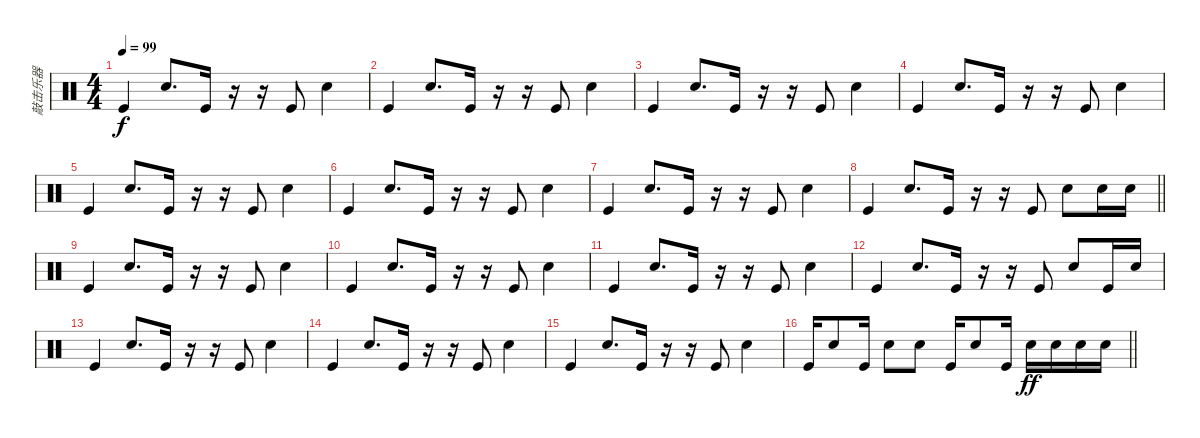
\track ("敲击乐器" "敲击乐器") {instrument percussion}
\staff {score}
\articulation defaults
\ts (4 4)
\tempo 99
\clef neutral
\ks c "Kick (hit)".4{dy f} "Snare (hit) 2".8{d} "Kick (hit)".16
r.16 r.16 "Kick (hit)".8 "Snare (hit) 2".4 |
"Kick (hit)".4 "Snare (hit) 2".8{d} "Kick (hit)".16 r.16 r.16 "Kick (hit)".8 "Snare (hit) 2".4 |
"Kick (hit)".4 "Snare (hit) 2".8{d} "Kick (hit)".16 r.16 r.16 "Kick (hit)".8 "Snare (hit) 2".4 |
"Kick (hit)".4 "Snare (hit) 2".8{d} "Kick (hit)".16 r.16 r.16 "Kick (hit)".8 "Snare (hit) 2".4 |
"Kick (hit)".4 "Snare (hit) 2".8{d} "Kick (hit)".16 r.16 r.16 "Kick (hit)".8 "Snare (hit) 2".4 |
"Kick (hit)".4 "Snare (hit) 2".8{d} "Kick (hit)".16 r.16 r.16 "Kick (hit)".8 "Snare (hit) 2".4 |
"Kick (hit)".4 "Snare (hit) 2".8{d} "Kick (hit)".16 r.16 r.16 "Kick (hit)".8 "Snare (hit) 2".4 |
\barLineRight lightlight "Kick (hit)".4 "Snare (hit) 2".8{d} "Kick (hit)".16
r.16 r.16 "Kick (hit)".8 "Snare (hit) 2".8 "Snare (hit) 2".16 "Snare (hit) 2".16 |
"Kick (hit)".4 "Snare (hit) 2".8{d} "Kick (hit)".16 r.16 r.16 "Kick (hit)".8 "Snare (hit) 2".4 |
"Kick (hit)".4 "Snare (hit) 2".8{d} "Kick (hit)".16 r.16 r.16 "Kick (hit)".8 "Snare (hit) 2".4 |
"Kick (hit)".4 "Snare (hit) 2".8{d} "Kick (hit)".16 r.16 r.16 "Kick (hit)".8 "Snare (hit) 2".4 |
"Kick (hit)".4 "Snare (hit) 2".8{d} "Kick (hit)".16 r.16 r.16 "Kick (hit)".8 "Snare (hit) 2".8 "Kick (hit)".16 "Snare (hit) 2".16 |
"Kick (hit)".4 "Snare (hit) 2".8{d} "Kick (hit)".16 r.16 r.16 "Kick (hit)".8 "Snare (hit) 2".4 |
"Kick (hit)".4 "Snare (hit) 2".8{d} "Kick (hit)".16 r.16 r.16 "Kick (hit)".8 "Snare (hit) 2".4 |
"Kick (hit)".4 "Snare (hit) 2".8{d} "Kick (hit)".16 r.16 r.16 "Kick (hit)".8 "Snare (hit) 2".4 |
\barLineRight lightlight "Kick (hit)".16 "Snare (hit) 2".8 "Kick (hit)".16 "Snare (hit) 2".8 "Snare (hit) 2".8 "Kick (hit)".16 "Snare (hit) 2".8 "Kick (hit)".16 "Snare (hit) 2".16{dy ff} "Snare (hit) 2".16 "Snare (hit) 2".16 "Snare (hit) 2".16
